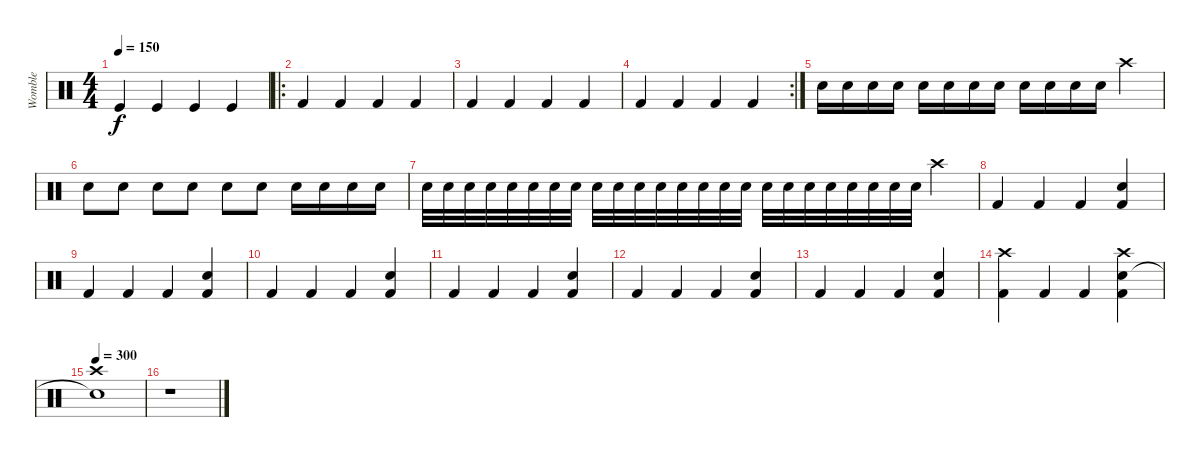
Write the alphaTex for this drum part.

\track ("Womble" "Womble") {instrument percussion}
\staff {score}
\articulation defaults
\ts (4 4)
\tempo 150
\clef neutral
\ks c "Kick (hit)".4{dy f} "Kick (hit)".4 "Kick (hit)".4 "Kick (hit)".4
|
\ro "Kick (hit) 2".4 "Kick (hit) 2".4 "Kick (hit) 2".4 "Kick (hit) 2".4
|
"Kick (hit) 2".4 "Kick (hit) 2".4 "Kick (hit) 2".4 "Kick (hit) 2".4 |
\rc 2 "Kick (hit) 2".4 "Kick (hit) 2".4 "Kick (hit) 2".4 "Kick (hit) 2".4
|
"Snare (hit) 2".16 "Snare (hit) 2".16 "Snare (hit) 2".16 "Snare (hit) 2".16 "Snare (hit) 2".16 "Snare (hit) 2".16 "Snare (hit) 2".16 "Snare (hit) 2".16 "Snare (hit) 2".16 "Snare (hit) 2".16 "Snare (hit) 2".16 "Snare (hit) 2".16 "Crash high (hit)".4 |
"Snare (hit) 2".8 "Snare (hit) 2".8 "Snare (hit) 2".8 "Snare (hit) 2".8 "Snare (hit) 2".8 "Snare (hit) 2".8 "Snare (hit) 2".16 "Snare (hit) 2".16 "Snare (hit) 2".16 "Snare (hit) 2".16 |
"Snare (hit) 2".32 "Snare (hit) 2".32 "Snare (hit) 2".32 "Snare (hit) 2".32 "Snare (hit) 2".32 "Snare (hit) 2".32 "Snare (hit) 2".32 "Snare (hit) 2".32 "Snare (hit) 2".32 "Snare (hit) 2".32 "Snare (hit) 2".32 "Snare (hit) 2".32 "Snare (hit) 2".32 "Snare (hit) 2".32 "Snare (hit) 2".32 "Snare (hit) 2".32 "Snare (hit) 2".32 "Snare (hit) 2".32 "Snare (hit) 2".32 "Snare (hit) 2".32 "Snare (hit) 2".32 "Snare (hit) 2".32 "Snare (hit) 2".32 "Snare (hit) 2".32 "Crash high (hit)".4 |
"Kick (hit) 2".4 "Kick (hit) 2".4 "Kick (hit) 2".4 ("Snare (hit) 2" "Kick (hit) 2").4 |
"Kick (hit) 2".4 "Kick (hit) 2".4 "Kick (hit) 2".4 ("Snare (hit) 2" "Kick (hit) 2").4 |
"Kick (hit) 2".4 "Kick (hit) 2".4 "Kick (hit) 2".4 ("Snare (hit) 2" "Kick (hit) 2").4 |
"Kick (hit) 2".4 "Kick (hit) 2".4 "Kick (hit) 2".4 ("Snare (hit) 2" "Kick (hit) 2").4 |
"Kick (hit) 2".4 "Kick (hit) 2".4 "Kick (hit) 2".4 ("Snare (hit) 2" "Kick (hit) 2").4 |
"Kick (hit) 2".4 "Kick (hit) 2".4 "Kick (hit) 2".4 ("Snare (hit) 2" "Kick (hit) 2").4 |
("Crash high (hit)" "Kick (hit) 2").4 "Kick (hit) 2".4 "Kick (hit) 2".4 ("Crash high (hit)" "Snare (hit) 2" "Kick (hit) 2").4 |
\tempo 300
("Crash high (hit)" "Snare (hit)"{t}).1 |
r.1
